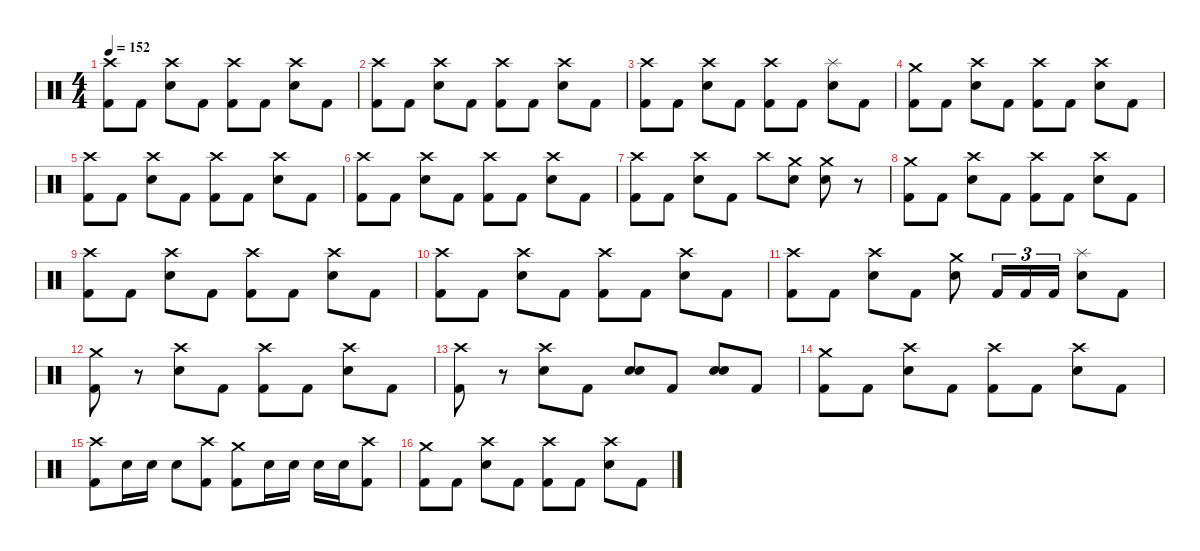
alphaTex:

\defaultSystemsLayout 4
\hideDynamics
\bracketExtendMode nobrackets
\singleTrackTrackNamePolicy hidden
\multiTrackTrackNamePolicy hidden
\firstSystemTrackNameMode fullname
\firstSystemTrackNameOrientation horizontal
\otherSystemsTrackNameOrientation horizontal
\track ("Percussion" "drm.") {defaultSystemsLayout 4 instrument percussion}
\staff {score}
\articulation defaults
\ts (4 4)
\tempo 152
\clef neutral
\ks c
("Crash high (hit)" "Kick (hit) 2").8{dy f beam Down} "Kick (hit) 2".8{beam Down} ("Crash high (hit)" "Snare (hit) 2").8{beam Down} "Kick (hit) 2".8{beam Down} ("Crash high (hit)" "Kick (hit) 2").8{beam Down} "Kick (hit) 2".8{beam Down} ("Crash high (hit)" "Snare (hit) 2").8{beam Down} "Kick (hit) 2".8{beam Down} |
("Crash high (hit)" "Kick (hit) 2").8{beam Down} "Kick (hit) 2".8{beam Down} ("Crash high (hit)" "Snare (hit) 2").8{beam Down} "Kick (hit) 2".8{beam Down} ("Crash high (hit)" "Kick (hit) 2").8{beam Down} "Kick (hit) 2".8{beam Down} ("Crash high (hit)" "Snare (hit) 2").8{beam Down} "Kick (hit) 2".8{beam Down} |
("Crash high (hit)" "Kick (hit) 2").8{beam Down} "Kick (hit) 2".8{beam Down} ("Crash high (hit)" "Snare (hit) 2").8{beam Down} "Kick (hit) 2".8{beam Down} ("Crash high (hit)" "Kick (hit) 2").8{beam Down} "Kick (hit) 2".8{beam Down} ("Splash (hit)" "Snare (hit) 2").8{beam Down} "Kick (hit) 2".8{beam Down} |
("Crash medium (hit)" "Kick (hit) 2").8{beam Down} "Kick (hit) 2".8{beam Down} ("Crash high (hit)" "Snare (hit) 2").8{beam Down} "Kick (hit) 2".8{beam Down} ("Crash high (hit)" "Kick (hit) 2").8{beam Down} "Kick (hit) 2".8{beam Down} ("Crash high (hit)" "Snare (hit) 2").8{beam Down} "Kick (hit) 2".8{beam Down} |
("Crash high (hit)" "Kick (hit) 2").8{beam Down} "Kick (hit) 2".8{beam Down} ("Crash high (hit)" "Snare (hit) 2").8{beam Down} "Kick (hit) 2".8{beam Down} ("Crash high (hit)" "Kick (hit) 2").8{beam Down} "Kick (hit) 2".8{beam Down} ("Crash high (hit)" "Snare (hit) 2").8{beam Down} "Kick (hit) 2".8{beam Down} |
("Crash high (hit)" "Kick (hit) 2").8{beam Down} "Kick (hit) 2".8{beam Down} ("Crash high (hit)" "Snare (hit) 2").8{beam Down} "Kick (hit) 2".8{beam Down} ("Crash high (hit)" "Kick (hit) 2").8{beam Down} "Kick (hit) 2".8{beam Down} ("Crash high (hit)" "Snare (hit) 2").8{beam Down} "Kick (hit) 2".8{beam Down} |
("Crash high (hit)" "Kick (hit) 2").8{beam Down} "Kick (hit) 2".8{beam Down} ("Crash high (hit)" "Snare (hit) 2").8{beam Down} "Kick (hit) 2".8{beam Down} "Crash high (hit)".8{beam Down} ("Crash medium (hit)" "Snare (hit) 2").8{beam Down} ("Crash medium (hit)" "Snare (hit) 2").8{beam Down} r.8{beam Down} |
("Crash medium (hit)" "Kick (hit) 2").8{beam Down} "Kick (hit) 2".8{beam Down} ("Crash high (hit)" "Snare (hit) 2").8{beam Down} "Kick (hit) 2".8{beam Down} ("Crash high (hit)" "Kick (hit) 2").8{beam Down} "Kick (hit) 2".8{beam Down} ("Crash high (hit)" "Snare (hit) 2").8{beam Down} "Kick (hit) 2".8{beam Down} |
("Crash high (hit)" "Kick (hit) 2").8{beam Down} "Kick (hit) 2".8{beam Down} ("Crash high (hit)" "Snare (hit) 2").8{beam Down} "Kick (hit) 2".8{beam Down} ("Crash high (hit)" "Kick (hit) 2").8{beam Down} "Kick (hit) 2".8{beam Down} ("Crash high (hit)" "Snare (hit) 2").8{beam Down} "Kick (hit) 2".8{beam Down} |
("Crash high (hit)" "Kick (hit) 2").8{beam Down} "Kick (hit) 2".8{beam Down} ("Crash high (hit)" "Snare (hit) 2").8{beam Down} "Kick (hit) 2".8{beam Down} ("Crash high (hit)" "Kick (hit) 2").8{beam Down} "Kick (hit) 2".8{beam Down} ("Crash high (hit)" "Snare (hit) 2").8{beam Down} "Kick (hit) 2".8{beam Down} |
("Crash high (hit)" "Kick (hit) 2").8{beam Down} "Kick (hit) 2".8{beam Down} ("Crash high (hit)" "Snare (hit) 2").8{beam Down} "Kick (hit) 2".8{beam Down} ("Crash medium (hit)" "Snare (hit) 2").8{beam Down} "Kick (hit) 2".16{tu (3 2) beam Up} "Kick (hit) 2".16{tu (3 2) beam Up} "Kick (hit) 2".16{tu (3 2) beam Up} ("Splash (hit)" "Snare (hit) 2").8{beam Down} "Kick (hit) 2".8{beam Down} |
("Crash medium (hit)" "Kick (hit) 2").8{beam Down} r.8{beam Down} ("Crash high (hit)" "Snare (hit) 2").8{beam Down} "Kick (hit) 2".8{beam Down} ("Crash high (hit)" "Kick (hit) 2").8{beam Down} "Kick (hit) 2".8{beam Down} ("Crash high (hit)" "Snare (hit) 2").8{beam Down} "Kick (hit) 2".8{beam Down} |
("Crash high (hit)" "Kick (hit) 2").8{beam Down} r.8{beam Down} ("Crash high (hit)" "Snare (hit) 2").8{beam Down} "Kick (hit) 2".8{beam Down} ("Snare (hit) 2" "Snare (hit) 2").8{beam Up} "Kick (hit) 2".8{beam Up} ("Snare (hit) 2" "Snare (hit) 2").8{beam Up} "Kick (hit) 2".8{beam Up} |
("Crash medium (hit)" "Kick (hit) 2").8{beam Down} "Kick (hit) 2".8{beam Down} ("Crash high (hit)" "Snare (hit) 2").8{beam Down} "Kick (hit) 2".8{beam Down} ("Crash high (hit)" "Kick (hit) 2").8{beam Down} "Kick (hit) 2".8{beam Down} ("Crash high (hit)" "Snare (hit) 2").8{beam Down} "Kick (hit) 2".8{beam Down} |
("Crash high (hit)" "Kick (hit) 2").8{beam Down} "Snare (hit) 2".16{beam Down} "Snare (hit) 2".16{beam Down} "Snare (hit) 2".8{beam Down} ("Crash high (hit)" "Kick (hit) 2").8{beam Down} ("Crash medium (hit)" "Kick (hit) 2").8{beam Down} "Snare (hit) 2".16{beam Down} "Snare (hit) 2".16{beam Down} "Snare (hit) 2".16{beam Down} "Snare (hit) 2".16{beam Down} ("Crash high (hit)" "Kick (hit) 2").8{beam Down} |
("Crash medium (hit)" "Kick (hit) 2").8{beam Down} "Kick (hit) 2".8{beam Down} ("Crash high (hit)" "Snare (hit) 2").8{beam Down} "Kick (hit) 2".8{beam Down} ("Crash high (hit)" "Kick (hit) 2").8{beam Down} "Kick (hit) 2".8{beam Down} ("Crash high (hit)" "Snare (hit) 2").8{beam Down} "Kick (hit) 2".8{beam Down}
